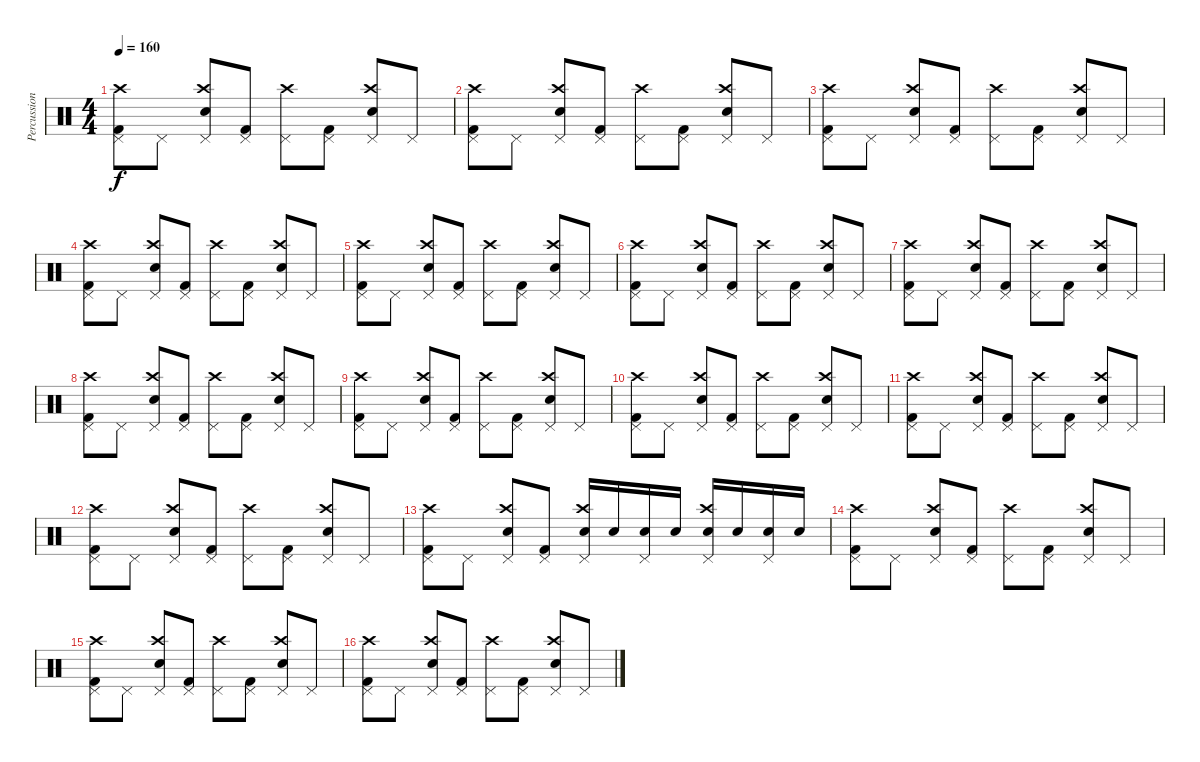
\track ("Percussion" "Percussion") {instrument percussion}
\staff {score}
\articulation defaults
\ts (4 4)
\tempo 160
\clef neutral
\ks c
("Pedal Hi-Hat (hit)" "Kick (hit) 2" "Crash high (hit)").8{dy f} "Pedal Hi-Hat (hit)".8 ("Pedal Hi-Hat (hit)" "Electric Snare (hit)" "Crash high (hit)").8 ("Pedal Hi-Hat (hit)" "Kick (hit) 2").8 ("Pedal Hi-Hat (hit)" "Crash high (hit)").8 ("Pedal Hi-Hat (hit)" "Kick (hit) 2").8 ("Pedal Hi-Hat (hit)" "Electric Snare (hit)" "Crash high (hit)").8 "Pedal Hi-Hat (hit)".8 |
("Pedal Hi-Hat (hit)" "Kick (hit) 2" "Crash high (hit)").8 "Pedal Hi-Hat (hit)".8 ("Pedal Hi-Hat (hit)" "Electric Snare (hit)" "Crash high (hit)").8 ("Pedal Hi-Hat (hit)" "Kick (hit) 2").8 ("Pedal Hi-Hat (hit)" "Crash high (hit)").8 ("Pedal Hi-Hat (hit)" "Kick (hit) 2").8 ("Pedal Hi-Hat (hit)" "Electric Snare (hit)" "Crash high (hit)").8 "Pedal Hi-Hat (hit)".8 |
("Pedal Hi-Hat (hit)" "Kick (hit) 2" "Crash high (hit)").8 "Pedal Hi-Hat (hit)".8 ("Pedal Hi-Hat (hit)" "Electric Snare (hit)" "Crash high (hit)").8 ("Pedal Hi-Hat (hit)" "Kick (hit) 2").8 ("Pedal Hi-Hat (hit)" "Crash high (hit)").8 ("Pedal Hi-Hat (hit)" "Kick (hit) 2").8 ("Pedal Hi-Hat (hit)" "Electric Snare (hit)" "Crash high (hit)").8 "Pedal Hi-Hat (hit)".8 |
("Pedal Hi-Hat (hit)" "Kick (hit) 2" "Crash high (hit)").8 "Pedal Hi-Hat (hit)".8 ("Pedal Hi-Hat (hit)" "Electric Snare (hit)" "Crash high (hit)").8 ("Pedal Hi-Hat (hit)" "Kick (hit) 2").8 ("Pedal Hi-Hat (hit)" "Crash high (hit)").8 ("Pedal Hi-Hat (hit)" "Kick (hit) 2").8 ("Pedal Hi-Hat (hit)" "Electric Snare (hit)" "Crash high (hit)").8 "Pedal Hi-Hat (hit)".8 |
("Pedal Hi-Hat (hit)" "Kick (hit) 2" "Crash high (hit)").8 "Pedal Hi-Hat (hit)".8 ("Pedal Hi-Hat (hit)" "Electric Snare (hit)" "Crash high (hit)").8 ("Pedal Hi-Hat (hit)" "Kick (hit) 2").8 ("Pedal Hi-Hat (hit)" "Crash high (hit)").8 ("Pedal Hi-Hat (hit)" "Kick (hit) 2").8 ("Pedal Hi-Hat (hit)" "Electric Snare (hit)" "Crash high (hit)").8 "Pedal Hi-Hat (hit)".8 |
("Pedal Hi-Hat (hit)" "Kick (hit) 2" "Crash high (hit)").8 "Pedal Hi-Hat (hit)".8 ("Pedal Hi-Hat (hit)" "Electric Snare (hit)" "Crash high (hit)").8 ("Pedal Hi-Hat (hit)" "Kick (hit) 2").8 ("Pedal Hi-Hat (hit)" "Crash high (hit)").8 ("Pedal Hi-Hat (hit)" "Kick (hit) 2").8 ("Pedal Hi-Hat (hit)" "Electric Snare (hit)" "Crash high (hit)").8 "Pedal Hi-Hat (hit)".8 |
("Pedal Hi-Hat (hit)" "Kick (hit) 2" "Crash high (hit)").8 "Pedal Hi-Hat (hit)".8 ("Pedal Hi-Hat (hit)" "Electric Snare (hit)" "Crash high (hit)").8 ("Pedal Hi-Hat (hit)" "Kick (hit) 2").8 ("Pedal Hi-Hat (hit)" "Crash high (hit)").8 ("Pedal Hi-Hat (hit)" "Kick (hit) 2").8 ("Pedal Hi-Hat (hit)" "Electric Snare (hit)" "Crash high (hit)").8 "Pedal Hi-Hat (hit)".8 |
("Pedal Hi-Hat (hit)" "Kick (hit) 2" "Crash high (hit)").8 "Pedal Hi-Hat (hit)".8 ("Pedal Hi-Hat (hit)" "Electric Snare (hit)" "Crash high (hit)").8 ("Pedal Hi-Hat (hit)" "Kick (hit) 2").8 ("Pedal Hi-Hat (hit)" "Crash high (hit)").8 ("Pedal Hi-Hat (hit)" "Kick (hit) 2").8 ("Pedal Hi-Hat (hit)" "Electric Snare (hit)" "Crash high (hit)").8 "Pedal Hi-Hat (hit)".8 |
("Pedal Hi-Hat (hit)" "Kick (hit) 2" "Crash high (hit)").8 "Pedal Hi-Hat (hit)".8 ("Pedal Hi-Hat (hit)" "Electric Snare (hit)" "Crash high (hit)").8 ("Pedal Hi-Hat (hit)" "Kick (hit) 2").8 ("Pedal Hi-Hat (hit)" "Crash high (hit)").8 ("Pedal Hi-Hat (hit)" "Kick (hit) 2").8 ("Pedal Hi-Hat (hit)" "Electric Snare (hit)" "Crash high (hit)").8 "Pedal Hi-Hat (hit)".8 |
("Pedal Hi-Hat (hit)" "Kick (hit) 2" "Crash high (hit)").8 "Pedal Hi-Hat (hit)".8 ("Pedal Hi-Hat (hit)" "Electric Snare (hit)" "Crash high (hit)").8 ("Pedal Hi-Hat (hit)" "Kick (hit) 2").8 ("Pedal Hi-Hat (hit)" "Crash high (hit)").8 ("Pedal Hi-Hat (hit)" "Kick (hit) 2").8 ("Pedal Hi-Hat (hit)" "Electric Snare (hit)" "Crash high (hit)").8 "Pedal Hi-Hat (hit)".8 |
("Pedal Hi-Hat (hit)" "Kick (hit) 2" "Crash high (hit)").8 "Pedal Hi-Hat (hit)".8 ("Pedal Hi-Hat (hit)" "Electric Snare (hit)" "Crash high (hit)").8 ("Pedal Hi-Hat (hit)" "Kick (hit) 2").8 ("Pedal Hi-Hat (hit)" "Crash high (hit)").8 ("Pedal Hi-Hat (hit)" "Kick (hit) 2").8 ("Pedal Hi-Hat (hit)" "Electric Snare (hit)" "Crash high (hit)").8 "Pedal Hi-Hat (hit)".8 |
("Pedal Hi-Hat (hit)" "Kick (hit) 2" "Crash high (hit)").8 "Pedal Hi-Hat (hit)".8 ("Pedal Hi-Hat (hit)" "Electric Snare (hit)" "Crash high (hit)").8 ("Pedal Hi-Hat (hit)" "Kick (hit) 2").8 ("Pedal Hi-Hat (hit)" "Crash high (hit)").8 ("Pedal Hi-Hat (hit)" "Kick (hit) 2").8 ("Pedal Hi-Hat (hit)" "Electric Snare (hit)" "Crash high (hit)").8 "Pedal Hi-Hat (hit)".8 |
("Pedal Hi-Hat (hit)" "Kick (hit) 2" "Crash high (hit)").8 "Pedal Hi-Hat (hit)".8 ("Pedal Hi-Hat (hit)" "Electric Snare (hit)" "Crash high (hit)").8 ("Pedal Hi-Hat (hit)" "Kick (hit) 2").8 ("Pedal Hi-Hat (hit)" "Electric Snare (hit)" "Crash high (hit)").16 "Electric Snare (hit)".16 ("Pedal Hi-Hat (hit)" "Electric Snare (hit)").16 "Electric Snare (hit)".16 ("Pedal Hi-Hat (hit)" "Electric Snare (hit)" "Crash high (hit)").16 "Electric Snare (hit)".16 ("Pedal Hi-Hat (hit)" "Electric Snare (hit)").16 "Electric Snare (hit)".16 |
("Pedal Hi-Hat (hit)" "Kick (hit) 2" "Crash high (hit)").8 "Pedal Hi-Hat (hit)".8 ("Pedal Hi-Hat (hit)" "Electric Snare (hit)" "Crash high (hit)").8 ("Pedal Hi-Hat (hit)" "Kick (hit) 2").8 ("Pedal Hi-Hat (hit)" "Crash high (hit)").8 ("Pedal Hi-Hat (hit)" "Kick (hit) 2").8 ("Pedal Hi-Hat (hit)" "Electric Snare (hit)" "Crash high (hit)").8 "Pedal Hi-Hat (hit)".8 |
("Pedal Hi-Hat (hit)" "Kick (hit) 2" "Crash high (hit)").8 "Pedal Hi-Hat (hit)".8 ("Pedal Hi-Hat (hit)" "Electric Snare (hit)" "Crash high (hit)").8 ("Pedal Hi-Hat (hit)" "Kick (hit) 2").8 ("Pedal Hi-Hat (hit)" "Crash high (hit)").8 ("Pedal Hi-Hat (hit)" "Kick (hit) 2").8 ("Pedal Hi-Hat (hit)" "Electric Snare (hit)" "Crash high (hit)").8 "Pedal Hi-Hat (hit)".8 |
("Pedal Hi-Hat (hit)" "Kick (hit) 2" "Crash high (hit)").8 "Pedal Hi-Hat (hit)".8 ("Pedal Hi-Hat (hit)" "Electric Snare (hit)" "Crash high (hit)").8 ("Pedal Hi-Hat (hit)" "Kick (hit) 2").8 ("Pedal Hi-Hat (hit)" "Crash high (hit)").8 ("Pedal Hi-Hat (hit)" "Kick (hit) 2").8 ("Pedal Hi-Hat (hit)" "Electric Snare (hit)" "Crash high (hit)").8 "Pedal Hi-Hat (hit)".8
